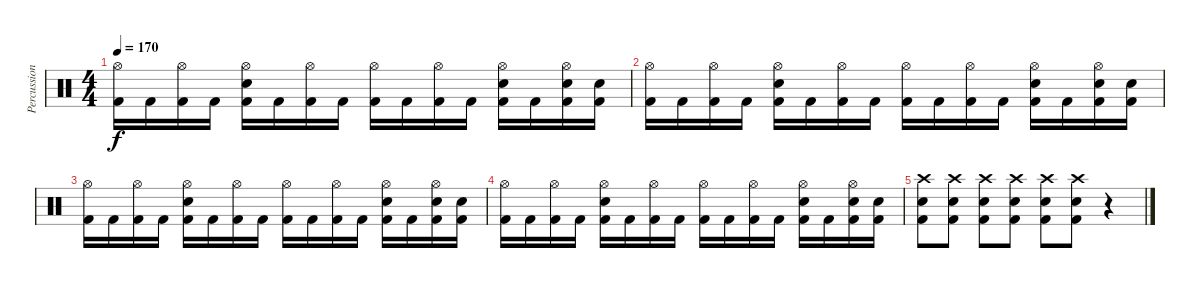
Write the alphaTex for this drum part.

\track ("Percussion" "Percussion") {instrument percussion}
\staff {score}
\articulation defaults
\ts (4 4)
\tempo 170
\clef neutral
\ks c
("Hi-Hat (open)" "Kick (hit) 2").16{dy f} "Kick (hit) 2".16 ("Hi-Hat (open)" "Kick (hit) 2").16 "Kick (hit) 2".16 ("Hi-Hat (open)" "Electric Snare (hit)" "Kick (hit) 2").16 "Kick (hit) 2".16 ("Hi-Hat (open)" "Kick (hit) 2").16 "Kick (hit) 2".16 ("Hi-Hat (open)" "Kick (hit) 2").16 "Kick (hit) 2".16 ("Hi-Hat (open)" "Kick (hit) 2").16 "Kick (hit) 2".16 ("Hi-Hat (open)" "Electric Snare (hit)" "Kick (hit) 2").16 "Kick (hit) 2".16 ("Hi-Hat (open)" "Electric Snare (hit)" "Kick (hit) 2").16 ("Electric Snare (hit)" "Kick (hit) 2").16 |
("Hi-Hat (open)" "Kick (hit) 2").16 "Kick (hit) 2".16 ("Hi-Hat (open)" "Kick (hit) 2").16 "Kick (hit) 2".16 ("Hi-Hat (open)" "Electric Snare (hit)" "Kick (hit) 2").16 "Kick (hit) 2".16 ("Hi-Hat (open)" "Kick (hit) 2").16 "Kick (hit) 2".16 ("Hi-Hat (open)" "Kick (hit) 2").16 "Kick (hit) 2".16 ("Hi-Hat (open)" "Kick (hit) 2").16 "Kick (hit) 2".16 ("Hi-Hat (open)" "Electric Snare (hit)" "Kick (hit) 2").16 "Kick (hit) 2".16 ("Hi-Hat (open)" "Electric Snare (hit)" "Kick (hit) 2").16 ("Electric Snare (hit)" "Kick (hit) 2").16 |
("Hi-Hat (open)" "Kick (hit) 2").16 "Kick (hit) 2".16 ("Hi-Hat (open)" "Kick (hit) 2").16 "Kick (hit) 2".16 ("Hi-Hat (open)" "Electric Snare (hit)" "Kick (hit) 2").16 "Kick (hit) 2".16 ("Hi-Hat (open)" "Kick (hit) 2").16 "Kick (hit) 2".16 ("Hi-Hat (open)" "Kick (hit) 2").16 "Kick (hit) 2".16 ("Hi-Hat (open)" "Kick (hit) 2").16 "Kick (hit) 2".16 ("Hi-Hat (open)" "Electric Snare (hit)" "Kick (hit) 2").16 "Kick (hit) 2".16 ("Hi-Hat (open)" "Electric Snare (hit)" "Kick (hit) 2").16 ("Electric Snare (hit)" "Kick (hit) 2").16 |
("Hi-Hat (open)" "Kick (hit) 2").16 "Kick (hit) 2".16 ("Hi-Hat (open)" "Kick (hit) 2").16 "Kick (hit) 2".16 ("Hi-Hat (open)" "Electric Snare (hit)" "Kick (hit) 2").16 "Kick (hit) 2".16 ("Hi-Hat (open)" "Kick (hit) 2").16 "Kick (hit) 2".16 ("Hi-Hat (open)" "Kick (hit) 2").16 "Kick (hit) 2".16 ("Hi-Hat (open)" "Kick (hit) 2").16 "Kick (hit) 2".16 ("Hi-Hat (open)" "Electric Snare (hit)" "Kick (hit) 2").16 "Kick (hit) 2".16 ("Hi-Hat (open)" "Electric Snare (hit)" "Kick (hit) 2").16 ("Electric Snare (hit)" "Kick (hit) 2").16 |
("Crash high (hit)" "Electric Snare (hit)" "Kick (hit) 2").8 ("Crash high (hit)" "Electric Snare (hit)" "Kick (hit) 2").8 ("Crash high (hit)" "Electric Snare (hit)" "Kick (hit) 2").8 ("Crash high (hit)" "Electric Snare (hit)" "Kick (hit) 2").8 ("Crash high (hit)" "Electric Snare (hit)" "Kick (hit) 2").8 ("Crash high (hit)" "Electric Snare (hit)" "Kick (hit) 2").8 r.4
